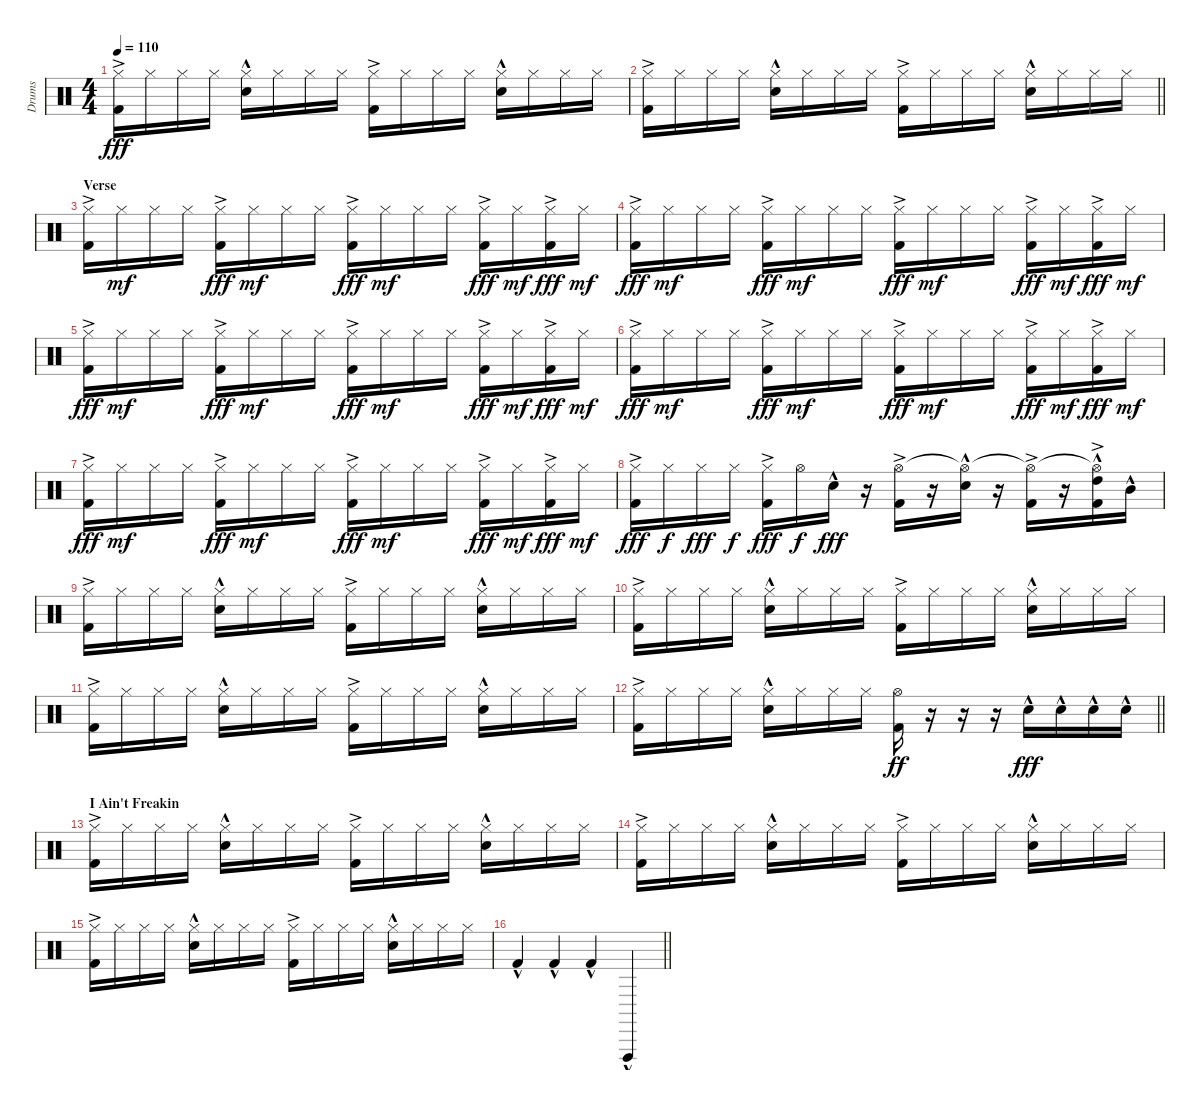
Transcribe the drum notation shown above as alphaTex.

\track ("Drums" "Drums") {instrument percussion}
\staff {score}
\articulation defaults
\ts (4 4)
\tempo 110
\clef neutral
\ks c
("Hi-Hat (closed)" "Kick (hit) 2"{ac}).16{dy fff} "Hi-Hat (closed)".16 "Hi-Hat (closed)".16 "Hi-Hat (closed)".16 ("Hi-Hat (closed)" "Electric Snare (hit)"{hac}).16 "Hi-Hat (closed)".16 "Hi-Hat (closed)".16 "Hi-Hat (closed)".16 ("Hi-Hat (closed)" "Kick (hit) 2"{ac}).16 "Hi-Hat (closed)".16 "Hi-Hat (closed)".16 "Hi-Hat (closed)".16 ("Hi-Hat (closed)" "Electric Snare (hit)"{hac}).16 "Hi-Hat (closed)".16 "Hi-Hat (closed)".16 "Hi-Hat (closed)".16 |
\barLineRight lightlight
("Hi-Hat (closed)" "Kick (hit) 2"{ac}).16 "Hi-Hat (closed)".16 "Hi-Hat (closed)".16 "Hi-Hat (closed)".16 ("Hi-Hat (closed)" "Electric Snare (hit)"{hac}).16 "Hi-Hat (closed)".16 "Hi-Hat (closed)".16 "Hi-Hat (closed)".16 ("Hi-Hat (closed)" "Kick (hit) 2"{ac}).16 "Hi-Hat (closed)".16 "Hi-Hat (closed)".16 "Hi-Hat (closed)".16 ("Hi-Hat (closed)" "Electric Snare (hit)"{hac}).16 "Hi-Hat (closed)".16 "Hi-Hat (closed)".16 "Hi-Hat (closed)".16 |
\section ("" "Verse")
("Hi-Hat (closed)" "Kick (hit) 2"{ac}).16 "Hi-Hat (closed)".16{dy mf} "Hi-Hat (closed)".16 "Hi-Hat (closed)".16 ("Hi-Hat (closed)" "Kick (hit) 2"{ac}).16{dy fff} "Hi-Hat (closed)".16{dy mf} "Hi-Hat (closed)".16 "Hi-Hat (closed)".16 ("Hi-Hat (closed)" "Kick (hit) 2"{ac}).16{dy fff} "Hi-Hat (closed)".16{dy mf} "Hi-Hat (closed)".16 "Hi-Hat (closed)".16 ("Hi-Hat (closed)" "Kick (hit) 2"{ac}).16{dy fff} "Hi-Hat (closed)".16{dy mf} ("Hi-Hat (closed)" "Kick (hit) 2"{ac}).16{dy fff} "Hi-Hat (closed)".16{dy mf} |
("Hi-Hat (closed)" "Kick (hit) 2"{ac}).16{dy fff} "Hi-Hat (closed)".16{dy mf} "Hi-Hat (closed)".16 "Hi-Hat (closed)".16 ("Hi-Hat (closed)" "Kick (hit) 2"{ac}).16{dy fff} "Hi-Hat (closed)".16{dy mf} "Hi-Hat (closed)".16 "Hi-Hat (closed)".16 ("Hi-Hat (closed)" "Kick (hit) 2"{ac}).16{dy fff} "Hi-Hat (closed)".16{dy mf} "Hi-Hat (closed)".16 "Hi-Hat (closed)".16 ("Hi-Hat (closed)" "Kick (hit) 2"{ac}).16{dy fff} "Hi-Hat (closed)".16{dy mf} ("Hi-Hat (closed)" "Kick (hit) 2"{ac}).16{dy fff} "Hi-Hat (closed)".16{dy mf} |
("Hi-Hat (closed)" "Kick (hit) 2"{ac}).16{dy fff} "Hi-Hat (closed)".16{dy mf} "Hi-Hat (closed)".16 "Hi-Hat (closed)".16 ("Hi-Hat (closed)" "Kick (hit) 2"{ac}).16{dy fff} "Hi-Hat (closed)".16{dy mf} "Hi-Hat (closed)".16 "Hi-Hat (closed)".16 ("Hi-Hat (closed)" "Kick (hit) 2"{ac}).16{dy fff} "Hi-Hat (closed)".16{dy mf} "Hi-Hat (closed)".16 "Hi-Hat (closed)".16 ("Hi-Hat (closed)" "Kick (hit) 2"{ac}).16{dy fff} "Hi-Hat (closed)".16{dy mf} ("Hi-Hat (closed)" "Kick (hit) 2"{ac}).16{dy fff} "Hi-Hat (closed)".16{dy mf} |
("Hi-Hat (closed)" "Kick (hit) 2"{ac}).16{dy fff} "Hi-Hat (closed)".16{dy mf} "Hi-Hat (closed)".16 "Hi-Hat (closed)".16 ("Hi-Hat (closed)" "Kick (hit) 2"{ac}).16{dy fff} "Hi-Hat (closed)".16{dy mf} "Hi-Hat (closed)".16 "Hi-Hat (closed)".16 ("Hi-Hat (closed)" "Kick (hit) 2"{ac}).16{dy fff} "Hi-Hat (closed)".16{dy mf} "Hi-Hat (closed)".16 "Hi-Hat (closed)".16 ("Hi-Hat (closed)" "Kick (hit) 2"{ac}).16{dy fff} "Hi-Hat (closed)".16{dy mf} ("Hi-Hat (closed)" "Kick (hit) 2"{ac}).16{dy fff} "Hi-Hat (closed)".16{dy mf} |
("Hi-Hat (closed)" "Kick (hit) 2"{ac}).16{dy fff} "Hi-Hat (closed)".16{dy mf} "Hi-Hat (closed)".16 "Hi-Hat (closed)".16 ("Hi-Hat (closed)" "Kick (hit) 2"{ac}).16{dy fff} "Hi-Hat (closed)".16{dy mf} "Hi-Hat (closed)".16 "Hi-Hat (closed)".16 ("Hi-Hat (closed)" "Kick (hit) 2"{ac}).16{dy fff} "Hi-Hat (closed)".16{dy mf} "Hi-Hat (closed)".16 "Hi-Hat (closed)".16 ("Hi-Hat (closed)" "Kick (hit) 2"{ac}).16{dy fff} "Hi-Hat (closed)".16{dy mf} ("Hi-Hat (closed)" "Kick (hit) 2"{ac}).16{dy fff} "Hi-Hat (closed)".16{dy mf} |
("Hi-Hat (closed)" "Kick (hit) 2"{ac}).16{dy fff} "Hi-Hat (closed)".16{dy f} "Hi-Hat (closed)".16{dy fff} "Hi-Hat (closed)".16{dy f} ("Hi-Hat (closed)" "Kick (hit) 2"{ac}).16{dy fff} "Hi-Hat (open)".16{dy f} "Electric Snare (hit)"{hac}.16{dy fff} r.16 ("Hi-Hat (open)" "Kick (hit) 2"{ac}).16 r.16 ("Hi-Hat (open)"{t} "Electric Snare (hit)"{hac}).16 r.16 ("Hi-Hat (open)"{t} "Kick (hit) 2"{ac}).16 r.16 ("Hi-Hat (open)"{t} "High Tom (hit)"{hac} "Kick (hit) 2"{ac}).16 "Mid Tom (hit)"{hac}.16 |
("Hi-Hat (closed)" "Kick (hit) 2"{ac}).16 "Hi-Hat (closed)".16 "Hi-Hat (closed)".16 "Hi-Hat (closed)".16 ("Hi-Hat (closed)" "Electric Snare (hit)"{hac}).16 "Hi-Hat (closed)".16 "Hi-Hat (closed)".16 "Hi-Hat (closed)".16 ("Hi-Hat (closed)" "Kick (hit) 2"{ac}).16 "Hi-Hat (closed)".16 "Hi-Hat (closed)".16 "Hi-Hat (closed)".16 ("Hi-Hat (closed)" "Electric Snare (hit)"{hac}).16 "Hi-Hat (closed)".16 "Hi-Hat (closed)".16 "Hi-Hat (closed)".16 |
("Hi-Hat (closed)" "Kick (hit) 2"{ac}).16 "Hi-Hat (closed)".16 "Hi-Hat (closed)".16 "Hi-Hat (closed)".16 ("Hi-Hat (closed)" "Electric Snare (hit)"{hac}).16 "Hi-Hat (closed)".16 "Hi-Hat (closed)".16 "Hi-Hat (closed)".16 ("Hi-Hat (closed)" "Kick (hit) 2"{ac}).16 "Hi-Hat (closed)".16 "Hi-Hat (closed)".16 "Hi-Hat (closed)".16 ("Hi-Hat (closed)" "Electric Snare (hit)"{hac}).16 "Hi-Hat (closed)".16 "Hi-Hat (closed)".16 "Hi-Hat (closed)".16 |
("Hi-Hat (closed)" "Kick (hit) 2"{ac}).16 "Hi-Hat (closed)".16 "Hi-Hat (closed)".16 "Hi-Hat (closed)".16 ("Hi-Hat (closed)" "Electric Snare (hit)"{hac}).16 "Hi-Hat (closed)".16 "Hi-Hat (closed)".16 "Hi-Hat (closed)".16 ("Hi-Hat (closed)" "Kick (hit) 2"{ac}).16 "Hi-Hat (closed)".16 "Hi-Hat (closed)".16 "Hi-Hat (closed)".16 ("Hi-Hat (closed)" "Electric Snare (hit)"{hac}).16 "Hi-Hat (closed)".16 "Hi-Hat (closed)".16 "Hi-Hat (closed)".16 |
\barLineRight lightlight
("Hi-Hat (closed)" "Kick (hit) 2"{ac}).16 "Hi-Hat (closed)".16 "Hi-Hat (closed)".16 "Hi-Hat (closed)".16 ("Hi-Hat (closed)" "Electric Snare (hit)"{hac}).16 "Hi-Hat (closed)".16 "Hi-Hat (closed)".16 "Hi-Hat (closed)".16 ("Hi-Hat (open)" "Kick (hit) 2").16{dy ff} r.16 r.16 r.16 "Electric Snare (hit)"{hac}.16{dy fff} "Electric Snare (hit)"{hac}.16 "Electric Snare (hit)"{hac}.16 "Electric Snare (hit)"{hac}.16 |
\section ("" "I Ain't Freakin")
("Hi-Hat (closed)" "Kick (hit) 2"{ac}).16 "Hi-Hat (closed)".16 "Hi-Hat (closed)".16 "Hi-Hat (closed)".16 ("Hi-Hat (closed)" "Electric Snare (hit)"{hac}).16 "Hi-Hat (closed)".16 "Hi-Hat (closed)".16 "Hi-Hat (closed)".16 ("Hi-Hat (closed)" "Kick (hit) 2"{ac}).16 "Hi-Hat (closed)".16 "Hi-Hat (closed)".16 "Hi-Hat (closed)".16 ("Hi-Hat (closed)" "Electric Snare (hit)"{hac}).16 "Hi-Hat (closed)".16 "Hi-Hat (closed)".16 "Hi-Hat (closed)".16 |
("Hi-Hat (closed)" "Kick (hit) 2"{ac}).16 "Hi-Hat (closed)".16 "Hi-Hat (closed)".16 "Hi-Hat (closed)".16 ("Hi-Hat (closed)" "Electric Snare (hit)"{hac}).16 "Hi-Hat (closed)".16 "Hi-Hat (closed)".16 "Hi-Hat (closed)".16 ("Hi-Hat (closed)" "Kick (hit) 2"{ac}).16 "Hi-Hat (closed)".16 "Hi-Hat (closed)".16 "Hi-Hat (closed)".16 ("Hi-Hat (closed)" "Electric Snare (hit)"{hac}).16 "Hi-Hat (closed)".16 "Hi-Hat (closed)".16 "Hi-Hat (closed)".16 |
("Hi-Hat (closed)" "Kick (hit) 2"{ac}).16 "Hi-Hat (closed)".16 "Hi-Hat (closed)".16 "Hi-Hat (closed)".16 ("Hi-Hat (closed)" "Electric Snare (hit)"{hac}).16 "Hi-Hat (closed)".16 "Hi-Hat (closed)".16 "Hi-Hat (closed)".16 ("Hi-Hat (closed)" "Kick (hit) 2"{ac}).16 "Hi-Hat (closed)".16 "Hi-Hat (closed)".16 "Hi-Hat (closed)".16 ("Hi-Hat (closed)" "Electric Snare (hit)"{hac}).16 "Hi-Hat (closed)".16 "Hi-Hat (closed)".16 "Hi-Hat (closed)".16 |
\barLineRight lightlight "Kick (hit) 2"{hac}.4 "Kick (hit) 2"{hac}.4 "Kick (hit) 2"{hac}.4 "Vibraslap (hit)"{hac}.4
